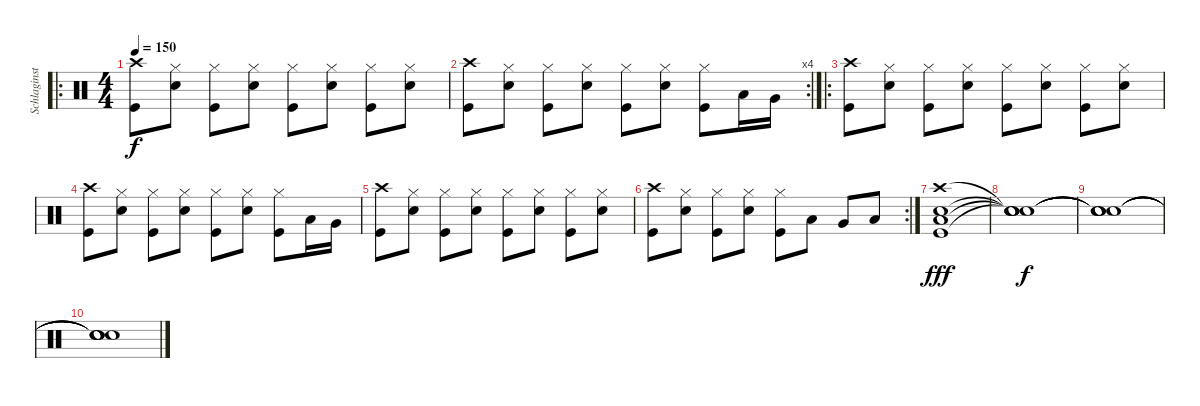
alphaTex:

\track ("Schlaginstrumente - Auswahl" "Schlaginst") {instrument percussion}
\staff {score}
\articulation defaults
\ro
\ts (4 4)
\tempo 150
\clef neutral
\ks c
("Crash high (hit)" "Kick (hit)").8{dy f} ("Hi-Hat (closed)" "Electric Snare (hit)").8 ("Hi-Hat (closed)" "Kick (hit)").8 ("Hi-Hat (closed)" "Electric Snare (hit)").8 ("Hi-Hat (closed)" "Kick (hit)").8 ("Hi-Hat (closed)" "Electric Snare (hit)").8 ("Hi-Hat (closed)" "Kick (hit)").8 ("Hi-Hat (closed)" "Electric Snare (hit)").8 |
\rc 4
("Crash high (hit)" "Kick (hit)").8 ("Hi-Hat (closed)" "Electric Snare (hit)").8 ("Hi-Hat (closed)" "Kick (hit)").8 ("Hi-Hat (closed)" "Electric Snare (hit)").8 ("Hi-Hat (closed)" "Kick (hit)").8 ("Hi-Hat (closed)" "Electric Snare (hit)").8 ("Hi-Hat (closed)" "Kick (hit)").8 "Low Tom (hit)".16 "Very Low Tom (hit)".16 |
\ro
("Crash high (hit)" "Kick (hit)").8 ("Hi-Hat (closed)" "Electric Snare (hit)").8 ("Hi-Hat (closed)" "Kick (hit)").8 ("Hi-Hat (closed)" "Electric Snare (hit)").8 ("Hi-Hat (closed)" "Kick (hit)").8 ("Hi-Hat (closed)" "Electric Snare (hit)").8 ("Hi-Hat (closed)" "Kick (hit)").8 ("Hi-Hat (closed)" "Electric Snare (hit)").8 |
("Crash high (hit)" "Kick (hit)").8 ("Hi-Hat (closed)" "Electric Snare (hit)").8 ("Hi-Hat (closed)" "Kick (hit)").8 ("Hi-Hat (closed)" "Electric Snare (hit)").8 ("Hi-Hat (closed)" "Kick (hit)").8 ("Hi-Hat (closed)" "Electric Snare (hit)").8 ("Hi-Hat (closed)" "Kick (hit)").8 "Low Tom (hit)".16 "Very Low Tom (hit)".16 |
("Crash high (hit)" "Kick (hit)").8 ("Hi-Hat (closed)" "Electric Snare (hit)").8 ("Hi-Hat (closed)" "Kick (hit)").8 ("Hi-Hat (closed)" "Electric Snare (hit)").8 ("Hi-Hat (closed)" "Kick (hit)").8 ("Hi-Hat (closed)" "Electric Snare (hit)").8 ("Hi-Hat (closed)" "Kick (hit)").8 ("Hi-Hat (closed)" "Electric Snare (hit)").8 |
\rc 2
("Crash high (hit)" "Kick (hit)").8 ("Hi-Hat (closed)" "Electric Snare (hit)").8 ("Hi-Hat (closed)" "Kick (hit)").8 ("Hi-Hat (closed)" "Electric Snare (hit)").8 ("Hi-Hat (closed)" "Kick (hit)").8 "Low Tom (hit)".8 "Very Low Tom (hit)".8 "Low Floor Tom (hit)".8 |
("Crash high (hit)" "Low Floor Tom (hit)" "Electric Snare (hit)" "Kick (hit)").1{dy fff} |
("Snare (hit)"{t} "Snare (hit)"{t} "Snare (hit)"{t} "Snare (hit)"{t}).1{dy f} |
("Snare (hit)"{t} "Snare (hit)"{t} "Snare (hit)"{t} "Snare (hit)"{t}).1 |
("Snare (hit)"{t} "Snare (hit)"{t} "Snare (hit)"{t} "Snare (hit)"{t}).1
